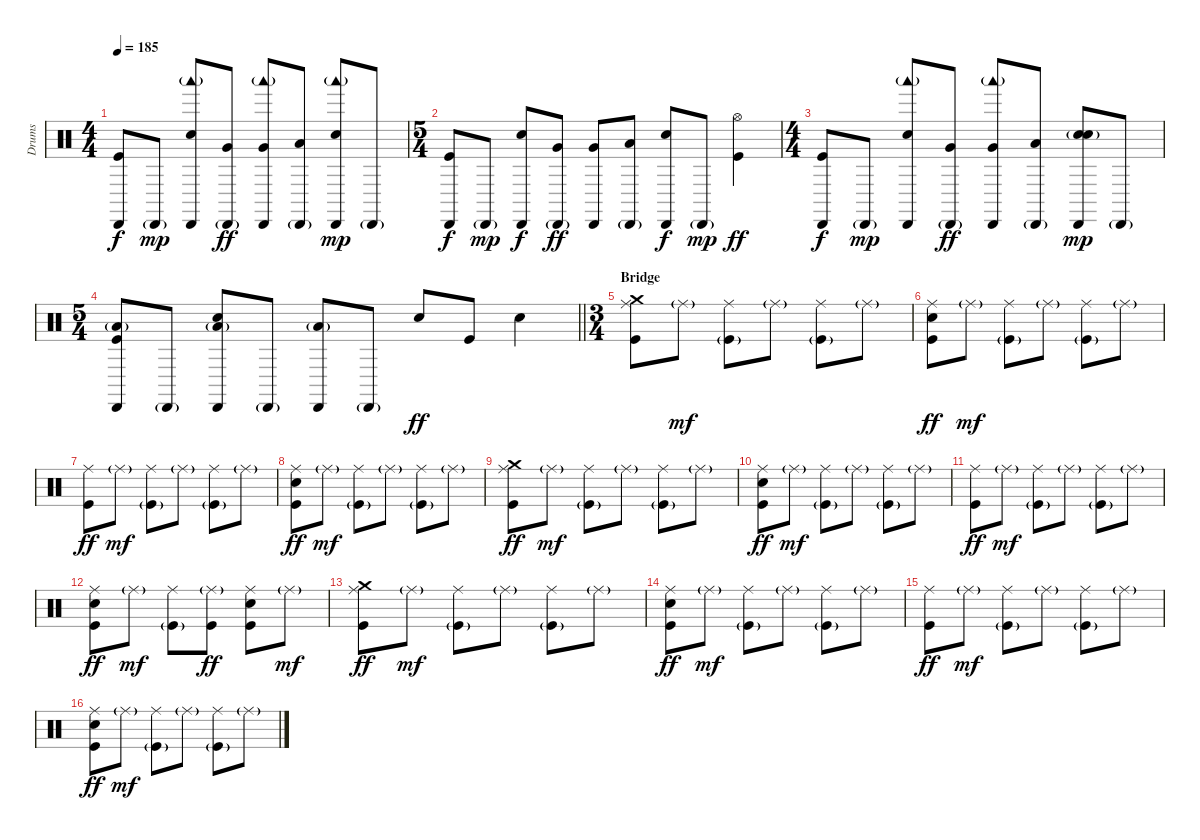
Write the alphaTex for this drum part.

\track ("Drums" "Drums") {instrument percussion}
\staff {score}
\articulation defaults
\ts (4 4)
\tempo 185
\clef neutral
\ks c
("Cabasa (hit)" "Kick (hit)").8{dy f} "Cabasa (hit)"{g}.8{dy mp} ("Woodblock low (hit)"{g} "Cabasa (hit)" "Snare (hit) 2").8 ("Cabasa (hit)"{g} "Very Low Tom (hit)").8{dy ff} ("Woodblock low (hit)"{g} "Cabasa (hit)" "Very Low Tom (hit)").8 ("Cabasa (hit)"{g} "Low Floor Tom (hit)").8 ("Woodblock low (hit)"{g} "Cabasa (hit)" "Snare (hit) 2").8{dy mp} "Cabasa (hit)"{g}.8 |
\ts (5 4)
("Cabasa (hit)" "Kick (hit)").8{dy f} "Cabasa (hit)"{g}.8{dy mp} ("Cabasa (hit)" "Snare (hit) 2").8{dy f} ("Cabasa (hit)"{g} "Very Low Tom (hit)").8{dy ff} ("Cabasa (hit)" "Very Low Tom (hit)").8 ("Cabasa (hit)"{g} "Low Floor Tom (hit)").8 ("Cabasa (hit)" "Snare (hit) 2").8{dy f} "Cabasa (hit)"{g}.8{dy mp} ("Hi-Hat (open)" "Kick (hit)").4{dy ff} |
\ts (4 4)
("Cabasa (hit)" "Kick (hit)").8{dy f} "Cabasa (hit)"{g}.8{dy mp} ("Woodblock low (hit)"{g} "Cabasa (hit)" "Snare (hit) 2").8 ("Cabasa (hit)"{g} "Very Low Tom (hit)").8{dy ff} ("Woodblock low (hit)"{g} "Cabasa (hit)" "Very Low Tom (hit)").8 ("Cabasa (hit)"{g} "Low Floor Tom (hit)").8 ("Snare (hit)"{g} "Cabasa (hit)" "Snare (hit) 2").8{dy mp} "Cabasa (hit)"{g}.8 |
\ts (5 4)
\barLineRight lightlight
("Cabasa (hit)" "Low Floor Tom (hit)"{g} "Kick (hit)").8 "Cabasa (hit)"{g}.8 ("Cabasa (hit)" "Low Floor Tom (hit)"{g} "Snare (hit) 2").8 "Cabasa (hit)"{g}.8 ("Cabasa (hit)" "Low Floor Tom (hit)"{g}).8 "Cabasa (hit)"{g}.8 "Snare (hit) 2".8{dy ff} "Kick (hit)".8 "Snare (hit) 2".4 |
\ts (3 4)
\section ("" "Bridge")
("Crash medium (hit)" "Ride (middle)" "Kick (hit)").8 "Ride (middle)"{g}.8{dy mf} ("Ride (middle)" "Kick (hit)"{g}).8 "Ride (middle)"{g}.8 ("Ride (middle)" "Kick (hit)"{g}).8 "Ride (middle)"{g}.8 |
("Ride (middle)" "Snare (hit) 2" "Kick (hit)").8{dy ff} "Ride (middle)"{g}.8{dy mf} ("Ride (middle)" "Kick (hit)"{g}).8 "Ride (middle)"{g}.8 ("Ride (middle)" "Kick (hit)"{g}).8 "Ride (middle)"{g}.8 |
("Ride (middle)" "Kick (hit)").8{dy ff} "Ride (middle)"{g}.8{dy mf} ("Ride (middle)" "Kick (hit)"{g}).8 "Ride (middle)"{g}.8 ("Ride (middle)" "Kick (hit)"{g}).8 "Ride (middle)"{g}.8 |
("Ride (middle)" "Snare (hit) 2" "Kick (hit)").8{dy ff} "Ride (middle)"{g}.8{dy mf} ("Ride (middle)" "Kick (hit)"{g}).8 "Ride (middle)"{g}.8 ("Ride (middle)" "Kick (hit)"{g}).8 "Ride (middle)"{g}.8 |
("Crash medium (hit)" "Ride (middle)" "Kick (hit)").8{dy ff} "Ride (middle)"{g}.8{dy mf} ("Ride (middle)" "Kick (hit)"{g}).8 "Ride (middle)"{g}.8 ("Ride (middle)" "Kick (hit)"{g}).8 "Ride (middle)"{g}.8 |
("Ride (middle)" "Snare (hit) 2" "Kick (hit)").8{dy ff} "Ride (middle)"{g}.8{dy mf} ("Ride (middle)" "Kick (hit)"{g}).8 "Ride (middle)"{g}.8 ("Ride (middle)" "Kick (hit)"{g}).8 "Ride (middle)"{g}.8 |
("Ride (middle)" "Kick (hit)").8{dy ff} "Ride (middle)"{g}.8{dy mf} ("Ride (middle)" "Kick (hit)"{g}).8 "Ride (middle)"{g}.8 ("Ride (middle)" "Kick (hit)"{g}).8 "Ride (middle)"{g}.8 |
("Ride (middle)" "Snare (hit) 2" "Kick (hit)").8{dy ff} "Ride (middle)"{g}.8{dy mf} ("Ride (middle)" "Kick (hit)"{g}).8 ("Ride (middle)"{g} "Kick (hit)").8{dy ff} ("Ride (middle)" "Snare (hit) 2" "Kick (hit)").8 "Ride (middle)"{g}.8{dy mf} |
("Crash medium (hit)" "Ride (middle)" "Kick (hit)").8{dy ff} "Ride (middle)"{g}.8{dy mf} ("Ride (middle)" "Kick (hit)"{g}).8 "Ride (middle)"{g}.8 ("Ride (middle)" "Kick (hit)"{g}).8 "Ride (middle)"{g}.8 |
("Ride (middle)" "Snare (hit) 2" "Kick (hit)").8{dy ff} "Ride (middle)"{g}.8{dy mf} ("Ride (middle)" "Kick (hit)"{g}).8 "Ride (middle)"{g}.8 ("Ride (middle)" "Kick (hit)"{g}).8 "Ride (middle)"{g}.8 |
("Ride (middle)" "Kick (hit)").8{dy ff} "Ride (middle)"{g}.8{dy mf} ("Ride (middle)" "Kick (hit)"{g}).8 "Ride (middle)"{g}.8 ("Ride (middle)" "Kick (hit)"{g}).8 "Ride (middle)"{g}.8 |
("Ride (middle)" "Snare (hit) 2" "Kick (hit)").8{dy ff} "Ride (middle)"{g}.8{dy mf} ("Ride (middle)" "Kick (hit)"{g}).8 "Ride (middle)"{g}.8 ("Ride (middle)" "Kick (hit)"{g}).8 "Ride (middle)"{g}.8
